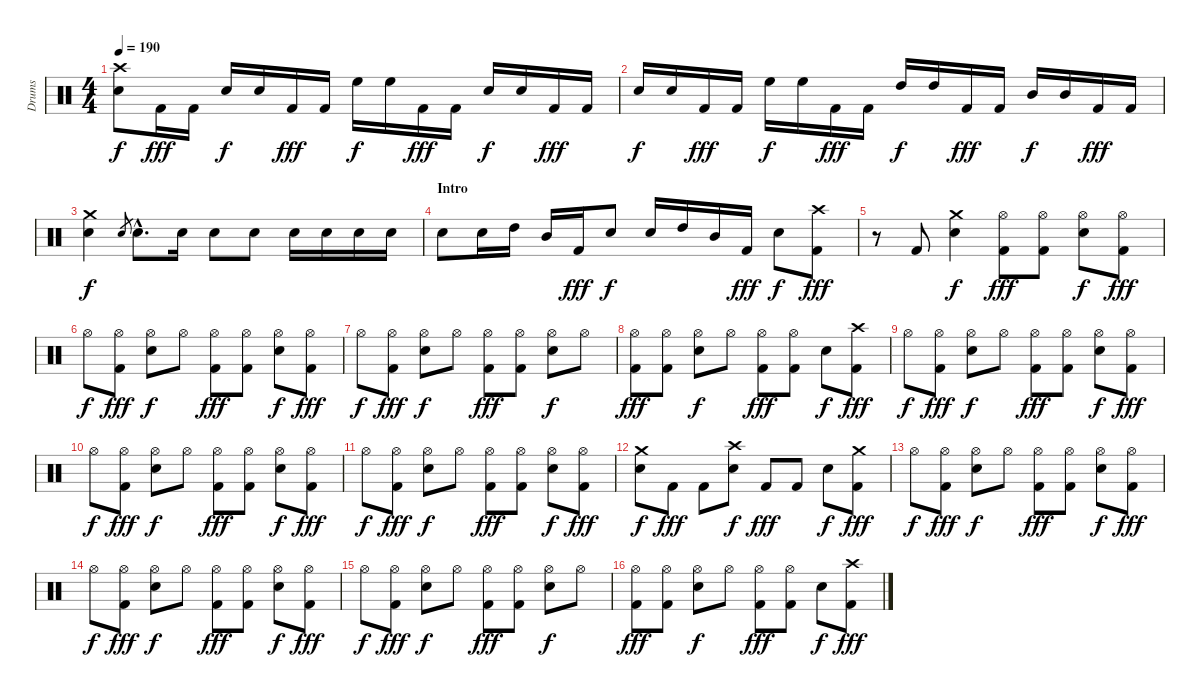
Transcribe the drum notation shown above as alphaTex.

\track ("Drums" "Drums") {instrument percussion}
\staff {score}
\articulation defaults
\ts (4 4)
\tempo 190
\clef neutral
\ks c
("Crash high (hit)" "Electric Snare (hit)").8{dy f} "Kick (hit) 2".16{dy fff} "Kick (hit) 2".16 "Electric Snare (hit)".16{dy f} "Electric Snare (hit)".16 "Kick (hit) 2".16{dy fff} "Kick (hit) 2".16 "High Floor Tom (hit)".16{dy f} "High Floor Tom (hit)".16 "Kick (hit) 2".16{dy fff} "Kick (hit) 2".16 "Electric Snare (hit)".16{dy f} "Electric Snare (hit)".16 "Kick (hit) 2".16{dy fff} "Kick (hit) 2".16 |
"Electric Snare (hit)".16{dy f} "Electric Snare (hit)".16 "Kick (hit) 2".16{dy fff} "Kick (hit) 2".16 "High Floor Tom (hit)".16{dy f} "High Floor Tom (hit)".16 "Kick (hit) 2".16{dy fff} "Kick (hit) 2".16 "High Tom (hit)".16{dy f} "High Tom (hit)".16 "Kick (hit) 2".16{dy fff} "Kick (hit) 2".16 "Mid Tom (hit)".16{dy f} "Mid Tom (hit)".16 "Kick (hit) 2".16{dy fff} "Kick (hit) 2".16 |
("Crash medium (hit)" "Electric Snare (hit)").4{dy f} "Electric Snare (hit)".8{gr} "Electric Snare (hit)"{hac}.8{d} "Electric Snare (hit)".16 "Electric Snare (hit)".8 "Electric Snare (hit)".8 "Electric Snare (hit)".16 "Electric Snare (hit)".16 "Electric Snare (hit)".16 "Electric Snare (hit)".16 |
\section ("" "Intro")
"Electric Snare (hit)".8 "Electric Snare (hit)".16 "High Tom (hit)".16 "Mid Tom (hit)".16 "Kick (hit) 2".16{dy fff} "Electric Snare (hit)".8{dy f} "Electric Snare (hit)".16 "High Tom (hit)".16 "Mid Tom (hit)".16 "Kick (hit) 2".16{dy fff} "Electric Snare (hit)".8{dy f} ("Crash high (hit)" "Kick (hit) 2").8{dy fff} |
r.8 "Kick (hit) 2".8 ("Crash medium (hit)" "Electric Snare (hit)").4{dy f} ("Hi-Hat (open)" "Kick (hit) 2").8{dy fff} ("Hi-Hat (open)" "Kick (hit) 2").8 ("Hi-Hat (open)" "Electric Snare (hit)").8{dy f} ("Hi-Hat (open)" "Kick (hit) 2").8{dy fff} |
"Hi-Hat (open)".8{dy f} ("Hi-Hat (open)" "Kick (hit) 2").8{dy fff} ("Hi-Hat (open)" "Electric Snare (hit)").8{dy f} "Hi-Hat (open)".8 ("Hi-Hat (open)" "Kick (hit) 2").8{dy fff} ("Hi-Hat (open)" "Kick (hit) 2").8 ("Hi-Hat (open)" "Electric Snare (hit)").8{dy f} ("Hi-Hat (open)" "Kick (hit) 2").8{dy fff} |
"Hi-Hat (open)".8{dy f} ("Hi-Hat (open)" "Kick (hit) 2").8{dy fff} ("Hi-Hat (open)" "Electric Snare (hit)").8{dy f} "Hi-Hat (open)".8 ("Hi-Hat (open)" "Kick (hit) 2").8{dy fff} ("Hi-Hat (open)" "Kick (hit) 2").8 ("Hi-Hat (open)" "Electric Snare (hit)").8{dy f} "Hi-Hat (open)".8 |
("Hi-Hat (open)" "Kick (hit) 2").8{dy fff} ("Hi-Hat (open)" "Kick (hit) 2").8 ("Hi-Hat (open)" "Electric Snare (hit)").8{dy f} "Hi-Hat (open)".8 ("Hi-Hat (open)" "Kick (hit) 2").8{dy fff} ("Hi-Hat (open)" "Kick (hit) 2").8 "Electric Snare (hit)".8{dy f} ("Crash high (hit)" "Kick (hit) 2").8{dy fff} |
"Hi-Hat (open)".8{dy f} ("Hi-Hat (open)" "Kick (hit) 2").8{dy fff} ("Hi-Hat (open)" "Electric Snare (hit)").8{dy f} "Hi-Hat (open)".8 ("Hi-Hat (open)" "Kick (hit) 2").8{dy fff} ("Hi-Hat (open)" "Kick (hit) 2").8 ("Hi-Hat (open)" "Electric Snare (hit)").8{dy f} ("Hi-Hat (open)" "Kick (hit) 2").8{dy fff} |
"Hi-Hat (open)".8{dy f} ("Hi-Hat (open)" "Kick (hit) 2").8{dy fff} ("Hi-Hat (open)" "Electric Snare (hit)").8{dy f} "Hi-Hat (open)".8 ("Hi-Hat (open)" "Kick (hit) 2").8{dy fff} ("Hi-Hat (open)" "Kick (hit) 2").8 ("Hi-Hat (open)" "Electric Snare (hit)").8{dy f} ("Hi-Hat (open)" "Kick (hit) 2").8{dy fff} |
"Hi-Hat (open)".8{dy f} ("Hi-Hat (open)" "Kick (hit) 2").8{dy fff} ("Hi-Hat (open)" "Electric Snare (hit)").8{dy f} "Hi-Hat (open)".8 ("Hi-Hat (open)" "Kick (hit) 2").8{dy fff} ("Hi-Hat (open)" "Kick (hit) 2").8 ("Hi-Hat (open)" "Electric Snare (hit)").8{dy f} ("Hi-Hat (open)" "Kick (hit) 2").8{dy fff} |
("Crash medium (hit)" "Electric Snare (hit)").8{dy f} "Kick (hit) 2".8{dy fff} "Kick (hit) 2".8 ("Crash high (hit)" "Electric Snare (hit)").8{dy f} "Kick (hit) 2".8{dy fff} "Kick (hit) 2".8 "Electric Snare (hit)".8{dy f} ("Crash medium (hit)" "Kick (hit) 2").8{dy fff} |
"Hi-Hat (open)".8{dy f} ("Hi-Hat (open)" "Kick (hit) 2").8{dy fff} ("Hi-Hat (open)" "Electric Snare (hit)").8{dy f} "Hi-Hat (open)".8 ("Hi-Hat (open)" "Kick (hit) 2").8{dy fff} ("Hi-Hat (open)" "Kick (hit) 2").8 ("Hi-Hat (open)" "Electric Snare (hit)").8{dy f} ("Hi-Hat (open)" "Kick (hit) 2").8{dy fff} |
"Hi-Hat (open)".8{dy f} ("Hi-Hat (open)" "Kick (hit) 2").8{dy fff} ("Hi-Hat (open)" "Electric Snare (hit)").8{dy f} "Hi-Hat (open)".8 ("Hi-Hat (open)" "Kick (hit) 2").8{dy fff} ("Hi-Hat (open)" "Kick (hit) 2").8 ("Hi-Hat (open)" "Electric Snare (hit)").8{dy f} ("Hi-Hat (open)" "Kick (hit) 2").8{dy fff} |
"Hi-Hat (open)".8{dy f} ("Hi-Hat (open)" "Kick (hit) 2").8{dy fff} ("Hi-Hat (open)" "Electric Snare (hit)").8{dy f} "Hi-Hat (open)".8 ("Hi-Hat (open)" "Kick (hit) 2").8{dy fff} ("Hi-Hat (open)" "Kick (hit) 2").8 ("Hi-Hat (open)" "Electric Snare (hit)").8{dy f} "Hi-Hat (open)".8 |
("Hi-Hat (open)" "Kick (hit) 2").8{dy fff} ("Hi-Hat (open)" "Kick (hit) 2").8 ("Hi-Hat (open)" "Electric Snare (hit)").8{dy f} "Hi-Hat (open)".8 ("Hi-Hat (open)" "Kick (hit) 2").8{dy fff} ("Hi-Hat (open)" "Kick (hit) 2").8 "Electric Snare (hit)".8{dy f} ("Crash high (hit)" "Kick (hit) 2").8{dy fff}
